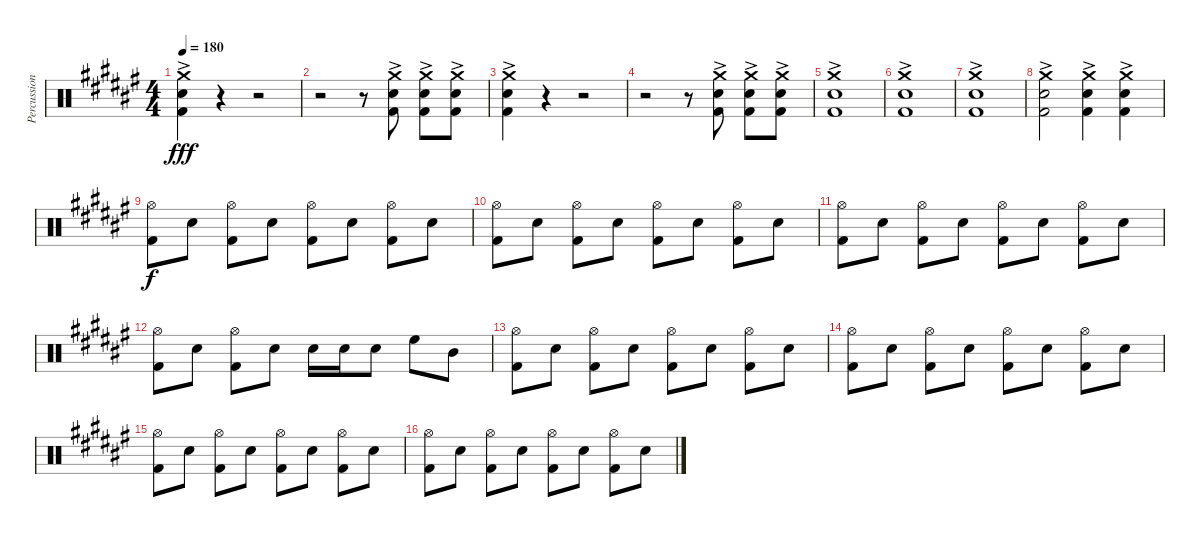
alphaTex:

\track ("Percussion" "Percussion") {instrument percussion}
\staff {score}
\articulation defaults
\ts (4 4)
\tempo 180
\clef neutral
\ks f#
("Crash medium (hit)"{ac} "Snare (hit) 2"{ac} "Kick (hit) 2"{ac}).4{dy fff} r.4 r.2 |
r.2 r.8 ("Crash medium (hit)"{ac} "Snare (hit) 2"{ac} "Kick (hit) 2"{ac}).8 ("Crash medium (hit)"{ac} "Snare (hit) 2"{ac} "Kick (hit) 2"{ac}).8 ("Crash medium (hit)"{ac} "Snare (hit) 2"{ac} "Kick (hit) 2"{ac}).8 |
("Crash medium (hit)"{ac} "Snare (hit) 2"{ac} "Kick (hit) 2"{ac}).4 r.4 r.2 |
r.2 r.8 ("Crash medium (hit)"{ac} "Snare (hit) 2"{ac} "Kick (hit) 2"{ac}).8 ("Crash medium (hit)"{ac} "Snare (hit) 2"{ac} "Kick (hit) 2"{ac}).8 ("Crash medium (hit)"{ac} "Snare (hit) 2"{ac} "Kick (hit) 2"{ac}).8 |
("Crash medium (hit)"{ac} "Snare (hit) 2"{ac} "Kick (hit) 2"{ac}).1 |
("Crash medium (hit)"{ac} "Snare (hit) 2"{ac} "Kick (hit) 2"{ac}).1 |
("Crash medium (hit)"{ac} "Snare (hit) 2"{ac} "Kick (hit) 2"{ac}).1 |
("Crash medium (hit)"{ac} "Snare (hit) 2"{ac} "Kick (hit) 2"{ac}).2 ("Crash medium (hit)"{ac} "Snare (hit) 2"{ac} "Kick (hit) 2"{ac}).4 ("Crash medium (hit)"{ac} "Snare (hit) 2"{ac} "Kick (hit) 2"{ac}).4 |
("Hi-Hat (open)" "Kick (hit) 2").8{dy f} "Snare (hit) 2".8 ("Hi-Hat (open)" "Kick (hit) 2").8 "Snare (hit) 2".8 ("Hi-Hat (open)" "Kick (hit) 2").8 "Snare (hit) 2".8 ("Hi-Hat (open)" "Kick (hit) 2").8 "Snare (hit) 2".8 |
("Hi-Hat (open)" "Kick (hit) 2").8 "Snare (hit) 2".8 ("Hi-Hat (open)" "Kick (hit) 2").8 "Snare (hit) 2".8 ("Hi-Hat (open)" "Kick (hit) 2").8 "Snare (hit) 2".8 ("Hi-Hat (open)" "Kick (hit) 2").8 "Snare (hit) 2".8 |
("Hi-Hat (open)" "Kick (hit) 2").8 "Snare (hit) 2".8 ("Hi-Hat (open)" "Kick (hit) 2").8 "Snare (hit) 2".8 ("Hi-Hat (open)" "Kick (hit) 2").8 "Snare (hit) 2".8 ("Hi-Hat (open)" "Kick (hit) 2").8 "Snare (hit) 2".8 |
("Hi-Hat (open)" "Kick (hit) 2").8 "Snare (hit) 2".8 ("Hi-Hat (open)" "Kick (hit) 2").8 "Snare (hit) 2".8 "Snare (hit) 2".16 "Snare (hit) 2".16 "Snare (hit) 2".8 "High Floor Tom (hit)".8 "Mid Tom (hit)".8 |
("Hi-Hat (open)" "Kick (hit) 2").8 "Snare (hit) 2".8 ("Hi-Hat (open)" "Kick (hit) 2").8 "Snare (hit) 2".8 ("Hi-Hat (open)" "Kick (hit) 2").8 "Snare (hit) 2".8 ("Hi-Hat (open)" "Kick (hit) 2").8 "Snare (hit) 2".8 |
("Hi-Hat (open)" "Kick (hit) 2").8 "Snare (hit) 2".8 ("Hi-Hat (open)" "Kick (hit) 2").8 "Snare (hit) 2".8 ("Hi-Hat (open)" "Kick (hit) 2").8 "Snare (hit) 2".8 ("Hi-Hat (open)" "Kick (hit) 2").8 "Snare (hit) 2".8 |
("Hi-Hat (open)" "Kick (hit) 2").8 "Snare (hit) 2".8 ("Hi-Hat (open)" "Kick (hit) 2").8 "Snare (hit) 2".8 ("Hi-Hat (open)" "Kick (hit) 2").8 "Snare (hit) 2".8 ("Hi-Hat (open)" "Kick (hit) 2").8 "Snare (hit) 2".8 |
("Hi-Hat (open)" "Kick (hit) 2").8 "Snare (hit) 2".8 ("Hi-Hat (open)" "Kick (hit) 2").8 "Snare (hit) 2".8 ("Hi-Hat (open)" "Kick (hit) 2").8 "Snare (hit) 2".8 ("Hi-Hat (open)" "Kick (hit) 2").8 "Snare (hit) 2".8
